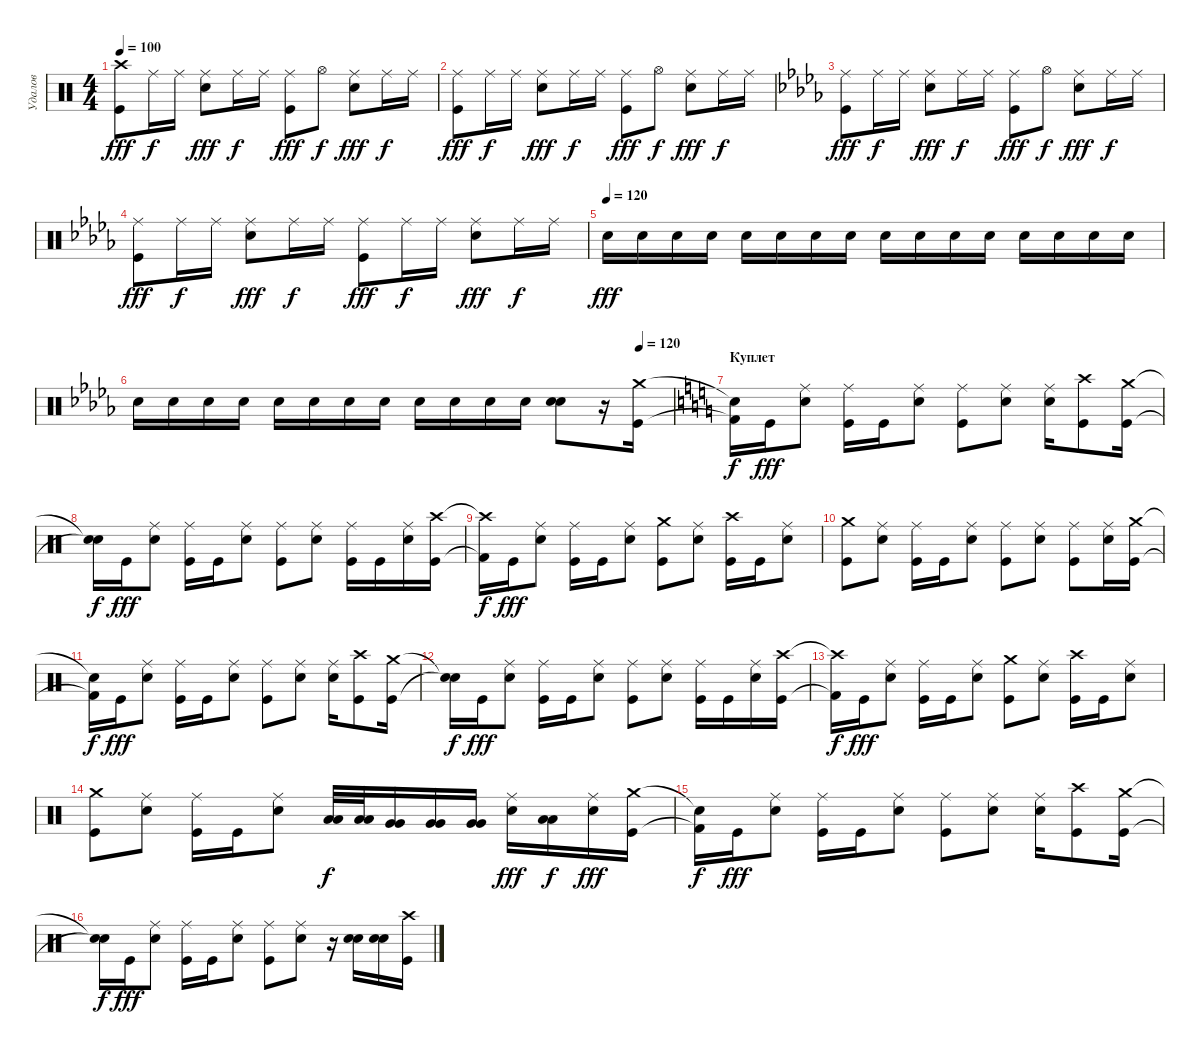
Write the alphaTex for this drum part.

\track ("Удалов " "Удалов ") {instrument percussion}
\staff {score}
\articulation defaults
\ts (4 4)
\tempo 100
\clef neutral
\ks c
("Kick (hit)" "Crash high (hit)").8{dy fff} "Ride (middle)".16{dy f} "Ride (middle)".16 ("Snare (hit) 2" "Ride (middle)").8{dy fff} "Ride (middle)".16{dy f} "Ride (middle)".16 ("Kick (hit)" "Ride (middle)").8{dy fff} "Hi-Hat (open)".8{dy f} ("Snare (hit) 2" "Ride (middle)").8{dy fff} "Ride (middle)".16{dy f} "Ride (middle)".16 |
("Kick (hit)" "Ride (middle)").8{dy fff} "Ride (middle)".16{dy f} "Ride (middle)".16 ("Snare (hit) 2" "Ride (middle)").8{dy fff} "Ride (middle)".16{dy f} "Ride (middle)".16 ("Kick (hit)" "Ride (middle)").8{dy fff} "Hi-Hat (open)".8{dy f} ("Snare (hit) 2" "Ride (middle)").8{dy fff} "Ride (middle)".16{dy f} "Ride (middle)".16 |
\ks db
("Kick (hit)" "Ride (middle)").8{dy fff} "Ride (middle)".16{dy f} "Ride (middle)".16 ("Snare (hit) 2" "Ride (middle)").8{dy fff} "Ride (middle)".16{dy f} "Ride (middle)".16 ("Kick (hit)" "Ride (middle)").8{dy fff} "Hi-Hat (open)".8{dy f} ("Snare (hit) 2" "Ride (middle)").8{dy fff} "Ride (middle)".16{dy f} "Ride (middle)".16 |
("Kick (hit)" "Ride (middle)").8{dy fff} "Ride (middle)".16{dy f} "Ride (middle)".16 ("Snare (hit) 2" "Ride (middle)").8{dy fff} "Ride (middle)".16{dy f} "Ride (middle)".16 ("Kick (hit)" "Ride (middle)").8{dy fff} "Ride (middle)".16{dy f} "Ride (middle)".16 ("Snare (hit) 2" "Ride (middle)").8{dy fff} "Ride (middle)".16{dy f} "Ride (middle)".16 |
\tempo (120)
"Electric Snare (hit)".16{dy fff} "Electric Snare (hit)".16 "Electric Snare (hit)".16 "Electric Snare (hit)".16 "Electric Snare (hit)".16 "Electric Snare (hit)".16 "Electric Snare (hit)".16 "Electric Snare (hit)".16 "Electric Snare (hit)".16 "Electric Snare (hit)".16 "Electric Snare (hit)".16 "Electric Snare (hit)".16 "Electric Snare (hit)".16 "Electric Snare (hit)".16 "Electric Snare (hit)".16 "Electric Snare (hit)".16 |
\tempo (120 0.9375)
"Electric Snare (hit)".16 "Electric Snare (hit)".16 "Electric Snare (hit)".16 "Electric Snare (hit)".16 "Electric Snare (hit)".16 "Electric Snare (hit)".16 "Electric Snare (hit)".16 "Electric Snare (hit)".16 "Electric Snare (hit)".16 "Electric Snare (hit)".16 "Electric Snare (hit)".16 "Electric Snare (hit)".16 ("Electric Snare (hit)" "Electric Snare (hit)").8 r.16 ("Kick (hit)" "Crash medium (hit)").16 |
\section ("" "Куплет ")
\ks c
("Kick (hit) 2"{t} "Snare (hit)"{t}).16{dy f} "Kick (hit)".16{dy fff} ("Snare (hit) 2" "Ride (middle)").8 ("Kick (hit)" "Ride (middle)").16 "Kick (hit)".16 ("Snare (hit) 2" "Ride (middle)").8 ("Kick (hit)" "Ride (middle)").8 ("Snare (hit) 2" "Ride (middle)").8 ("Snare (hit) 2" "Ride (middle)").16 ("Kick (hit)" "Crash high (hit)").8 ("Kick (hit)" "Crash medium (hit)").16 |
("Snare (hit) 2"{t} "Snare (hit)"{t}).16{dy f} "Kick (hit)".16{dy fff} ("Snare (hit) 2" "Ride (middle)").8 ("Kick (hit)" "Ride (middle)").16 "Kick (hit)".16 ("Snare (hit) 2" "Ride (middle)").8 ("Kick (hit)" "Ride (middle)").8 ("Snare (hit) 2" "Ride (middle)").8 ("Kick (hit)" "Ride (middle)").16 "Kick (hit)".16 ("Snare (hit) 2" "Ride (middle)").16 ("Crash high (hit)" "Kick (hit)").16 |
("Crash high (hit)"{t} "Kick (hit) 2"{t}).16{dy f} "Kick (hit)".16{dy fff} ("Snare (hit) 2" "Ride (middle)").8 ("Kick (hit)" "Ride (middle)").16 "Kick (hit)".16 ("Snare (hit) 2" "Ride (middle)").8 ("Kick (hit)" "Crash medium (hit)").8 ("Ride (middle)" "Snare (hit) 2").8 ("Kick (hit)" "Crash high (hit)").16 "Kick (hit)".16 ("Snare (hit) 2" "Ride (middle)").8 |
("Crash medium (hit)" "Kick (hit)").8 ("Snare (hit) 2" "Ride (middle)").8 ("Kick (hit)" "Ride (middle)").16 "Kick (hit)".16 ("Snare (hit) 2" "Ride (middle)").8 ("Kick (hit)" "Ride (middle)").8 ("Ride (middle)" "Snare (hit) 2").8 ("Kick (hit)" "Ride (middle)").8 ("Snare (hit) 2" "Ride (middle)").16 ("Kick (hit)" "Crash medium (hit)").16 |
("Kick (hit) 2"{t} "Snare (hit)"{t}).16{dy f} "Kick (hit)".16{dy fff} ("Snare (hit) 2" "Ride (middle)").8 ("Kick (hit)" "Ride (middle)").16 "Kick (hit)".16 ("Snare (hit) 2" "Ride (middle)").8 ("Kick (hit)" "Ride (middle)").8 ("Snare (hit) 2" "Ride (middle)").8 ("Snare (hit) 2" "Ride (middle)").16 ("Kick (hit)" "Crash high (hit)").8 ("Kick (hit)" "Crash medium (hit)").16 |
("Snare (hit) 2"{t} "Snare (hit)"{t}).16{dy f} "Kick (hit)".16{dy fff} ("Snare (hit) 2" "Ride (middle)").8 ("Kick (hit)" "Ride (middle)").16 "Kick (hit)".16 ("Snare (hit) 2" "Ride (middle)").8 ("Kick (hit)" "Ride (middle)").8 ("Snare (hit) 2" "Ride (middle)").8 ("Kick (hit)" "Ride (middle)").16 "Kick (hit)".16 ("Snare (hit) 2" "Ride (middle)").16 ("Crash high (hit)" "Kick (hit)").16 |
("Crash high (hit)"{t} "Kick (hit) 2"{t}).16{dy f} "Kick (hit)".16{dy fff} ("Snare (hit) 2" "Ride (middle)").8 ("Ride (middle)" "Kick (hit)").16 "Kick (hit)".16 ("Snare (hit) 2" "Ride (middle)").8 ("Kick (hit)" "Crash medium (hit)").8 ("Ride (middle)" "Snare (hit) 2").8 ("Kick (hit)" "Crash high (hit)").16 "Kick (hit)".16 ("Snare (hit) 2" "Ride (middle)").8 |
("Kick (hit)" "Crash medium (hit)").8 ("Snare (hit) 2" "Ride (middle)").8 ("Kick (hit)" "Ride (middle)").16 "Kick (hit)".16 ("Snare (hit) 2" "Ride (middle)").8 ("Low Tom (hit)" "Low Tom (hit)").32{dy f} ("Low Tom (hit)" "Low Tom (hit)").32 ("Very Low Tom (hit)" "Very Low Tom (hit)").16 ("Very Low Tom (hit)" "Very Low Tom (hit)").16 ("Very Low Tom (hit)" "Very Low Tom (hit)").16 ("Snare (hit) 2" "Ride (middle)").16{dy fff} ("Low Tom (hit)" "Low Tom (hit)").16{dy f} ("Snare (hit) 2" "Ride (middle)").16{dy fff} ("Kick (hit)" "Crash medium (hit)").16 |
("Kick (hit) 2"{t} "Snare (hit)"{t}).16{dy f} "Kick (hit)".16{dy fff} ("Snare (hit) 2" "Ride (middle)").8 ("Kick (hit)" "Ride (middle)").16 "Kick (hit)".16 ("Snare (hit) 2" "Ride (middle)").8 ("Kick (hit)" "Ride (middle)").8 ("Snare (hit) 2" "Ride (middle)").8 ("Snare (hit) 2" "Ride (middle)").16 ("Kick (hit)" "Crash high (hit)").8 ("Kick (hit)" "Crash medium (hit)").16 |
("Snare (hit) 2"{t} "Snare (hit)"{t}).16{dy f} "Kick (hit)".16{dy fff} ("Snare (hit) 2" "Ride (middle)").8 ("Kick (hit)" "Ride (middle)").16 "Kick (hit)".16 ("Snare (hit) 2" "Ride (middle)").8 ("Kick (hit)" "Ride (middle)").8 ("Snare (hit) 2" "Ride (middle)").8 r.16 ("Snare (hit) 2" "Snare (hit) 2").16 ("Snare (hit) 2" "Snare (hit) 2").16 ("Crash high (hit)" "Kick (hit)").16
